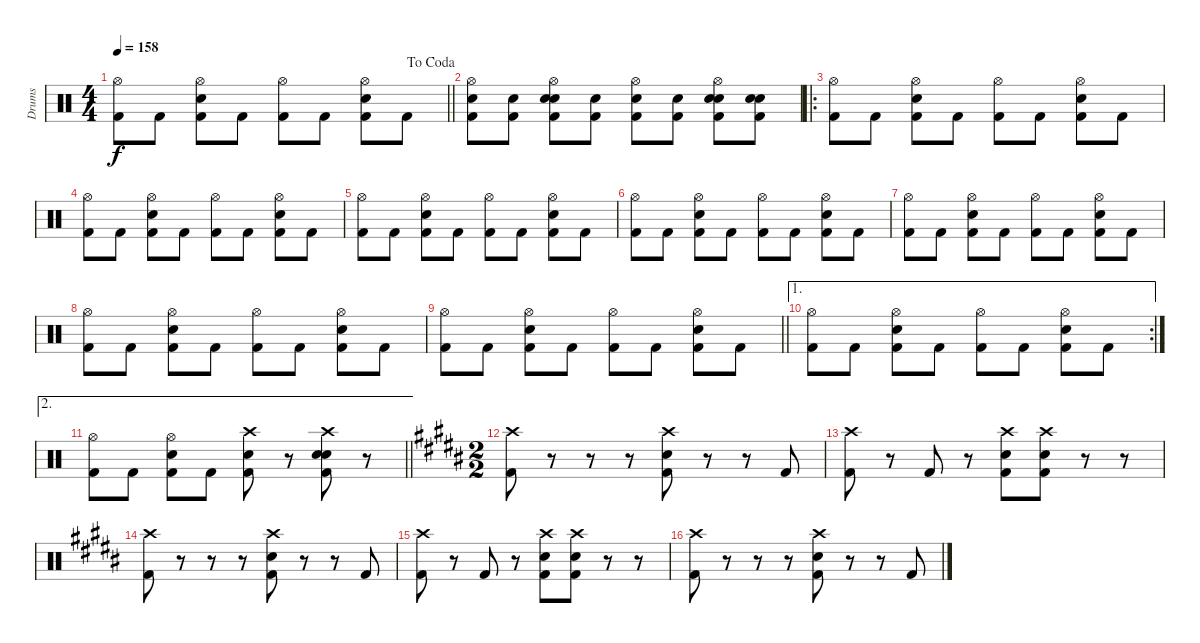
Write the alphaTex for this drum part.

\track ("Drums" "Drums") {instrument percussion}
\staff {score}
\articulation defaults
\ts (4 4)
\jump dacoda
\tempo 158
\clef neutral
\barLineRight lightlight
\ks c
("Hi-Hat (open)" "Kick (hit) 2").8{dy f} "Kick (hit) 2".8 ("Hi-Hat (open)" "Electric Snare (hit)" "Kick (hit) 2").8 "Kick (hit) 2".8 ("Hi-Hat (open)" "Kick (hit) 2").8 "Kick (hit) 2".8 ("Hi-Hat (open)" "Kick (hit) 2" "Electric Snare (hit)").8 "Kick (hit) 2".8 |
("Hi-Hat (open)" "Electric Snare (hit)" "Kick (hit) 2").8 ("Electric Snare (hit)" "Kick (hit) 2").8 ("Hi-Hat (open)" "Electric Snare (hit)" "Electric Snare (hit)" "Kick (hit) 2").8 ("Electric Snare (hit)" "Kick (hit) 2").8 ("Hi-Hat (open)" "Electric Snare (hit)" "Kick (hit) 2").8 ("Electric Snare (hit)" "Kick (hit) 2").8 ("Hi-Hat (open)" "Electric Snare (hit)" "Kick (hit) 2" "Electric Snare (hit)").8 ("Electric Snare (hit)" "Electric Snare (hit)" "Kick (hit) 2").8 |
\ro
("Hi-Hat (open)" "Kick (hit) 2").8 "Kick (hit) 2".8 ("Hi-Hat (open)" "Electric Snare (hit)" "Kick (hit) 2").8 "Kick (hit) 2".8 ("Hi-Hat (open)" "Kick (hit) 2").8 "Kick (hit) 2".8 ("Hi-Hat (open)" "Kick (hit) 2" "Electric Snare (hit)").8 "Kick (hit) 2".8 |
("Hi-Hat (open)" "Kick (hit) 2").8 "Kick (hit) 2".8 ("Hi-Hat (open)" "Electric Snare (hit)" "Kick (hit) 2").8 "Kick (hit) 2".8 ("Hi-Hat (open)" "Kick (hit) 2").8 "Kick (hit) 2".8 ("Hi-Hat (open)" "Kick (hit) 2" "Electric Snare (hit)").8 "Kick (hit) 2".8 |
("Hi-Hat (open)" "Kick (hit) 2").8 "Kick (hit) 2".8 ("Hi-Hat (open)" "Electric Snare (hit)" "Kick (hit) 2").8 "Kick (hit) 2".8 ("Hi-Hat (open)" "Kick (hit) 2").8 "Kick (hit) 2".8 ("Hi-Hat (open)" "Kick (hit) 2" "Electric Snare (hit)").8 "Kick (hit) 2".8 |
("Hi-Hat (open)" "Kick (hit) 2").8 "Kick (hit) 2".8 ("Hi-Hat (open)" "Electric Snare (hit)" "Kick (hit) 2").8 "Kick (hit) 2".8 ("Hi-Hat (open)" "Kick (hit) 2").8 "Kick (hit) 2".8 ("Hi-Hat (open)" "Kick (hit) 2" "Electric Snare (hit)").8 "Kick (hit) 2".8 |
("Hi-Hat (open)" "Kick (hit) 2").8 "Kick (hit) 2".8 ("Hi-Hat (open)" "Electric Snare (hit)" "Kick (hit) 2").8 "Kick (hit) 2".8 ("Hi-Hat (open)" "Kick (hit) 2").8 "Kick (hit) 2".8 ("Hi-Hat (open)" "Kick (hit) 2" "Electric Snare (hit)").8 "Kick (hit) 2".8 |
("Hi-Hat (open)" "Kick (hit) 2").8 "Kick (hit) 2".8 ("Hi-Hat (open)" "Electric Snare (hit)" "Kick (hit) 2").8 "Kick (hit) 2".8 ("Hi-Hat (open)" "Kick (hit) 2").8 "Kick (hit) 2".8 ("Hi-Hat (open)" "Kick (hit) 2" "Electric Snare (hit)").8 "Kick (hit) 2".8 |
\barLineRight lightlight
("Hi-Hat (open)" "Kick (hit) 2").8 "Kick (hit) 2".8 ("Hi-Hat (open)" "Electric Snare (hit)" "Kick (hit) 2").8 "Kick (hit) 2".8 ("Hi-Hat (open)" "Kick (hit) 2").8 "Kick (hit) 2".8 ("Hi-Hat (open)" "Kick (hit) 2" "Electric Snare (hit)").8 "Kick (hit) 2".8 |
\ae 1
\rc 2
("Hi-Hat (open)" "Kick (hit) 2").8 "Kick (hit) 2".8 ("Hi-Hat (open)" "Electric Snare (hit)" "Kick (hit) 2").8 "Kick (hit) 2".8 ("Hi-Hat (open)" "Kick (hit) 2").8 "Kick (hit) 2".8 ("Hi-Hat (open)" "Kick (hit) 2" "Electric Snare (hit)").8 "Kick (hit) 2".8 |
\ae 2
\barLineRight lightlight
("Hi-Hat (open)" "Kick (hit) 2").8 "Kick (hit) 2".8 ("Hi-Hat (open)" "Electric Snare (hit)" "Kick (hit) 2").8 "Kick (hit) 2".8 ("Crash high (hit)" "Electric Snare (hit)" "Kick (hit) 2").8 r.8 ("Crash high (hit)" "Electric Snare (hit)" "Kick (hit) 2" "Electric Snare (hit)").8 r.8 |
\ts (2 2)
\ks b
("Crash high (hit)" "Kick (hit) 2").8 r.8 r.8 r.8 ("Crash high (hit)" "Electric Snare (hit)" "Kick (hit) 2").8 r.8 r.8 "Kick (hit) 2".8 |
\ks g#minor
("Crash high (hit)" "Kick (hit) 2").8 r.8 "Kick (hit) 2".8 r.8 ("Crash high (hit)" "Electric Snare (hit)" "Kick (hit) 2").8 ("Crash high (hit)" "Electric Snare (hit)" "Kick (hit) 2").8 r.8 r.8 |
\ks b
("Crash high (hit)" "Kick (hit) 2").8 r.8 r.8 r.8 ("Crash high (hit)" "Electric Snare (hit)" "Kick (hit) 2").8 r.8 r.8 "Kick (hit) 2".8 |
\ks g#minor
("Crash high (hit)" "Kick (hit) 2").8 r.8 "Kick (hit) 2".8 r.8 ("Crash high (hit)" "Electric Snare (hit)" "Kick (hit) 2").8 ("Crash high (hit)" "Electric Snare (hit)" "Kick (hit) 2").8 r.8 r.8 |
\ks b
("Crash high (hit)" "Kick (hit) 2").8 r.8 r.8 r.8 ("Crash high (hit)" "Electric Snare (hit)" "Kick (hit) 2").8 r.8 r.8 "Kick (hit) 2".8
